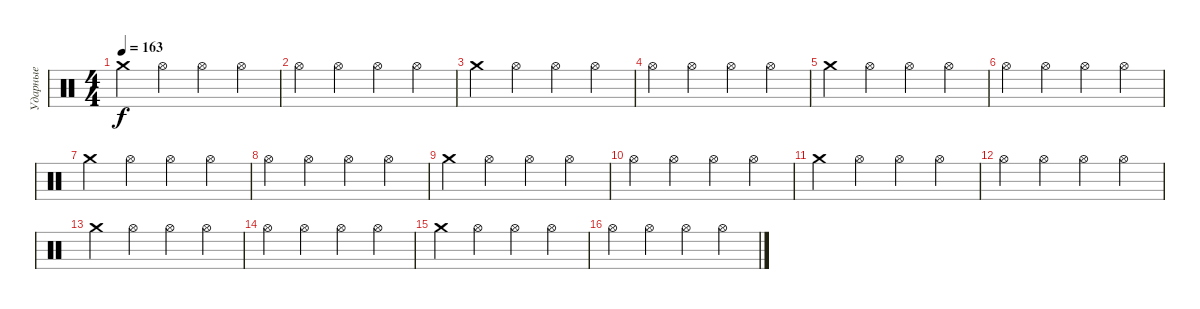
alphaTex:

\track ("Ударные" "Ударные") {instrument percussion}
\staff {score}
\articulation defaults
\ts (4 4)
\tempo 163
\clef neutral
\ks c "Crash medium (hit)".4{dy f} "Hi-Hat (open)".4 "Hi-Hat (open)".4 "Hi-Hat (open)".4
|
"Hi-Hat (open)".4 "Hi-Hat (open)".4 "Hi-Hat (open)".4 "Hi-Hat (open)".4 |
"Crash medium (hit)".4 "Hi-Hat (open)".4 "Hi-Hat (open)".4 "Hi-Hat (open)".4 |
"Hi-Hat (open)".4 "Hi-Hat (open)".4 "Hi-Hat (open)".4 "Hi-Hat (open)".4 |
"Crash medium (hit)".4 "Hi-Hat (open)".4 "Hi-Hat (open)".4 "Hi-Hat (open)".4 |
"Hi-Hat (open)".4 "Hi-Hat (open)".4 "Hi-Hat (open)".4 "Hi-Hat (open)".4 |
"Crash medium (hit)".4 "Hi-Hat (open)".4 "Hi-Hat (open)".4 "Hi-Hat (open)".4 |
"Hi-Hat (open)".4 "Hi-Hat (open)".4 "Hi-Hat (open)".4 "Hi-Hat (open)".4 |
"Crash medium (hit)".4 "Hi-Hat (open)".4 "Hi-Hat (open)".4 "Hi-Hat (open)".4 |
"Hi-Hat (open)".4 "Hi-Hat (open)".4 "Hi-Hat (open)".4 "Hi-Hat (open)".4 |
"Crash medium (hit)".4 "Hi-Hat (open)".4 "Hi-Hat (open)".4 "Hi-Hat (open)".4 |
"Hi-Hat (open)".4 "Hi-Hat (open)".4 "Hi-Hat (open)".4 "Hi-Hat (open)".4 |
"Crash medium (hit)".4 "Hi-Hat (open)".4 "Hi-Hat (open)".4 "Hi-Hat (open)".4 |
"Hi-Hat (open)".4 "Hi-Hat (open)".4 "Hi-Hat (open)".4 "Hi-Hat (open)".4 |
"Crash medium (hit)".4 "Hi-Hat (open)".4 "Hi-Hat (open)".4 "Hi-Hat (open)".4 |
"Hi-Hat (open)".4 "Hi-Hat (open)".4 "Hi-Hat (open)".4 "Hi-Hat (open)".4
